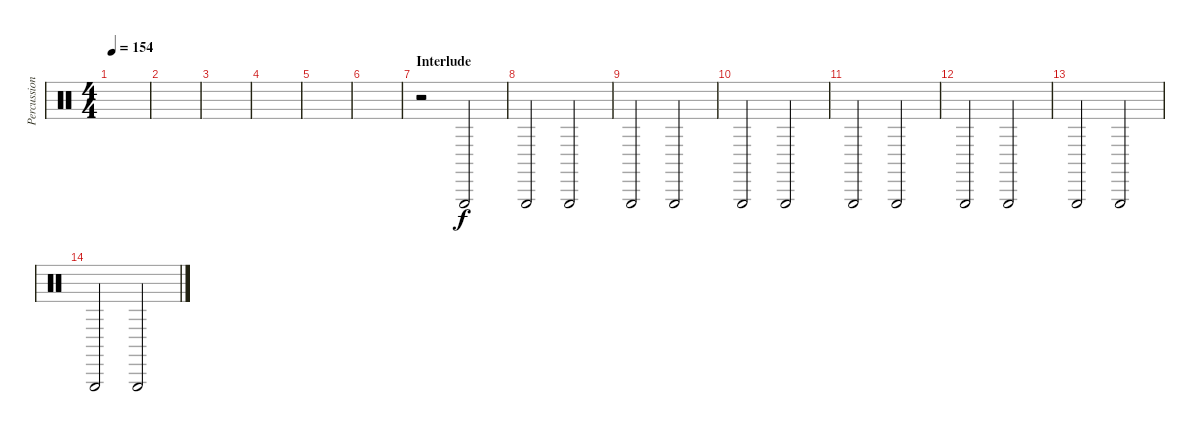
\track ("Percussion (Brandon Saller)" "Percussion") {instrument percussion}
\staff {score}
\articulation defaults
\ts (4 4)
\tempo 154
\clef neutral
\ks c
|
|
|
|
|
|
\section ("" "Interlude")
r.2 "Triangle (hit)".2 |
"Triangle (hit)".2 "Triangle (hit)".2 |
"Triangle (hit)".2 "Triangle (hit)".2 |
"Triangle (hit)".2 "Triangle (hit)".2 |
"Triangle (hit)".2 "Triangle (hit)".2 |
"Triangle (hit)".2 "Triangle (hit)".2 |
"Triangle (hit)".2 "Triangle (hit)".2 |
"Triangle (hit)".2 "Triangle (hit)".2
